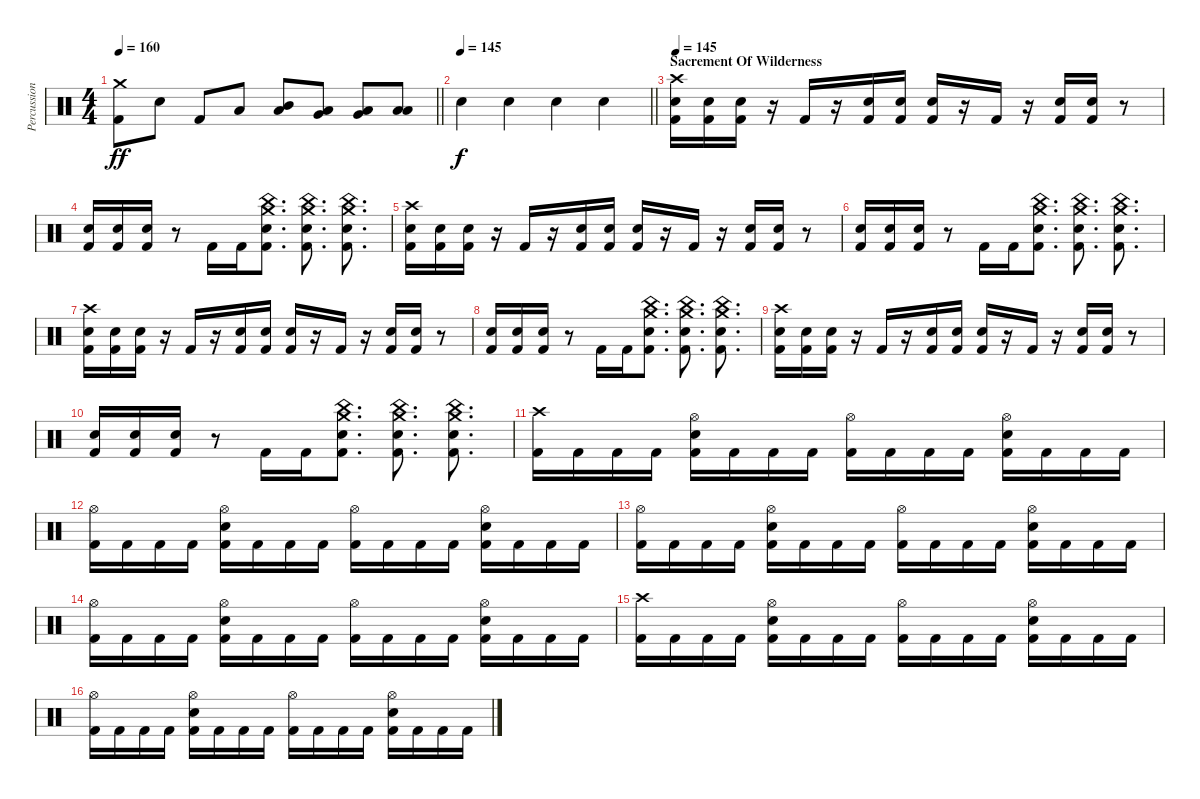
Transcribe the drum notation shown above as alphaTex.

\track ("Percussion" "Percussion") {instrument percussion}
\staff {score}
\articulation defaults
\ts (4 4)
\tempo 160
\clef neutral
\barLineRight lightlight
\ks c
("Crash medium (hit)" "Kick (hit) 2").8{dy ff} "Snare (hit) 2".8 "Kick (hit) 2".8 "Low Floor Tom (hit)".8 ("Mid Tom (hit)" "Low Floor Tom (hit)").8 ("Low Floor Tom (hit)" "Very Low Tom (hit)").8 ("Low Tom (hit)" "Very Low Tom (hit)").8 ("Low Floor Tom (hit)" "Low Floor Tom (hit)").8 |
\tempo 145
\barLineRight lightlight "Electric Snare (hit)".4{dy f} "Electric Snare (hit)".4 "Electric Snare (hit)".4 "Electric Snare (hit)".4
|
\section ("" "Sacrement Of Wilderness")
\tempo 145
("Kick (hit) 2" "Electric Snare (hit)" "Crash high (hit)").16 ("Kick (hit) 2" "Electric Snare (hit)").16 ("Kick (hit) 2" "Electric Snare (hit)").16 r.16 "Kick (hit) 2".16 r.16 ("Kick (hit) 2" "Electric Snare (hit)").16 ("Kick (hit) 2" "Electric Snare (hit)").16 ("Kick (hit) 2" "Electric Snare (hit)").16 r.16 "Kick (hit) 2".16 r.16 ("Kick (hit) 2" "Electric Snare (hit)").16 ("Kick (hit) 2" "Electric Snare (hit)").16 r.8 |
("Kick (hit) 2" "Electric Snare (hit)").16 ("Kick (hit) 2" "Electric Snare (hit)").16 ("Kick (hit) 2" "Electric Snare (hit)").16 r.8 "Kick (hit) 2".16 "Kick (hit) 2".16 ("Kick (hit) 2" "Electric Snare (hit)" "China (hit)" "Crash medium (hit)").8{d} ("Kick (hit) 2" "Electric Snare (hit)" "China (hit)" "Crash medium (hit)").8{d} ("Kick (hit) 2" "Electric Snare (hit)" "China (hit)" "Crash medium (hit)").8{d} |
("Kick (hit) 2" "Electric Snare (hit)" "Crash high (hit)").16 ("Kick (hit) 2" "Electric Snare (hit)").16 ("Kick (hit) 2" "Electric Snare (hit)").16 r.16 "Kick (hit) 2".16 r.16 ("Kick (hit) 2" "Electric Snare (hit)").16 ("Kick (hit) 2" "Electric Snare (hit)").16 ("Kick (hit) 2" "Electric Snare (hit)").16 r.16 "Kick (hit) 2".16 r.16 ("Kick (hit) 2" "Electric Snare (hit)").16 ("Kick (hit) 2" "Electric Snare (hit)").16 r.8 |
("Kick (hit) 2" "Electric Snare (hit)").16 ("Kick (hit) 2" "Electric Snare (hit)").16 ("Kick (hit) 2" "Electric Snare (hit)").16 r.8 "Kick (hit) 2".16 "Kick (hit) 2".16 ("Kick (hit) 2" "Electric Snare (hit)" "China (hit)" "Crash medium (hit)").8{d} ("Kick (hit) 2" "Electric Snare (hit)" "China (hit)" "Crash medium (hit)").8{d} ("Kick (hit) 2" "Electric Snare (hit)" "China (hit)" "Crash medium (hit)").8{d} |
("Kick (hit) 2" "Electric Snare (hit)" "Crash high (hit)").16 ("Kick (hit) 2" "Electric Snare (hit)").16 ("Kick (hit) 2" "Electric Snare (hit)").16 r.16 "Kick (hit) 2".16 r.16 ("Kick (hit) 2" "Electric Snare (hit)").16 ("Kick (hit) 2" "Electric Snare (hit)").16 ("Kick (hit) 2" "Electric Snare (hit)").16 r.16 "Kick (hit) 2".16 r.16 ("Kick (hit) 2" "Electric Snare (hit)").16 ("Kick (hit) 2" "Electric Snare (hit)").16 r.8 |
("Kick (hit) 2" "Electric Snare (hit)").16 ("Kick (hit) 2" "Electric Snare (hit)").16 ("Kick (hit) 2" "Electric Snare (hit)").16 r.8 "Kick (hit) 2".16 "Kick (hit) 2".16 ("Kick (hit) 2" "Electric Snare (hit)" "China (hit)" "Crash medium (hit)").8{d} ("Kick (hit) 2" "Electric Snare (hit)" "China (hit)" "Crash medium (hit)").8{d} ("Kick (hit) 2" "Electric Snare (hit)" "China (hit)" "Crash medium (hit)").8{d} |
("Kick (hit) 2" "Electric Snare (hit)" "Crash high (hit)").16 ("Kick (hit) 2" "Electric Snare (hit)").16 ("Kick (hit) 2" "Electric Snare (hit)").16 r.16 "Kick (hit) 2".16 r.16 ("Kick (hit) 2" "Electric Snare (hit)").16 ("Kick (hit) 2" "Electric Snare (hit)").16 ("Kick (hit) 2" "Electric Snare (hit)").16 r.16 "Kick (hit) 2".16 r.16 ("Kick (hit) 2" "Electric Snare (hit)").16 ("Kick (hit) 2" "Electric Snare (hit)").16 r.8 |
("Kick (hit) 2" "Electric Snare (hit)").16 ("Kick (hit) 2" "Electric Snare (hit)").16 ("Kick (hit) 2" "Electric Snare (hit)").16 r.8 "Kick (hit) 2".16 "Kick (hit) 2".16 ("Kick (hit) 2" "Electric Snare (hit)" "China (hit)" "Crash medium (hit)").8{d} ("Kick (hit) 2" "Electric Snare (hit)" "China (hit)" "Crash medium (hit)").8{d} ("Kick (hit) 2" "Electric Snare (hit)" "China (hit)" "Crash medium (hit)").8{d} |
("Kick (hit) 2" "Crash high (hit)").16 "Kick (hit) 2".16 "Kick (hit) 2".16 "Kick (hit) 2".16 ("Kick (hit) 2" "Electric Snare (hit)" "Hi-Hat (open)").16 "Kick (hit) 2".16 "Kick (hit) 2".16 "Kick (hit) 2".16 ("Kick (hit) 2" "Hi-Hat (open)").16 "Kick (hit) 2".16 "Kick (hit) 2".16 "Kick (hit) 2".16 ("Kick (hit) 2" "Electric Snare (hit)" "Hi-Hat (open)").16 "Kick (hit) 2".16 "Kick (hit) 2".16 "Kick (hit) 2".16 |
("Kick (hit) 2" "Hi-Hat (open)").16 "Kick (hit) 2".16 "Kick (hit) 2".16 "Kick (hit) 2".16 ("Kick (hit) 2" "Electric Snare (hit)" "Hi-Hat (open)").16 "Kick (hit) 2".16 "Kick (hit) 2".16 "Kick (hit) 2".16 ("Kick (hit) 2" "Hi-Hat (open)").16 "Kick (hit) 2".16 "Kick (hit) 2".16 "Kick (hit) 2".16 ("Kick (hit) 2" "Electric Snare (hit)" "Hi-Hat (open)").16 "Kick (hit) 2".16 "Kick (hit) 2".16 "Kick (hit) 2".16 |
("Kick (hit) 2" "Hi-Hat (open)").16 "Kick (hit) 2".16 "Kick (hit) 2".16 "Kick (hit) 2".16 ("Kick (hit) 2" "Electric Snare (hit)" "Hi-Hat (open)").16 "Kick (hit) 2".16 "Kick (hit) 2".16 "Kick (hit) 2".16 ("Kick (hit) 2" "Hi-Hat (open)").16 "Kick (hit) 2".16 "Kick (hit) 2".16 "Kick (hit) 2".16 ("Kick (hit) 2" "Electric Snare (hit)" "Hi-Hat (open)").16 "Kick (hit) 2".16 "Kick (hit) 2".16 "Kick (hit) 2".16 |
("Kick (hit) 2" "Hi-Hat (open)").16 "Kick (hit) 2".16 "Kick (hit) 2".16 "Kick (hit) 2".16 ("Kick (hit) 2" "Electric Snare (hit)" "Hi-Hat (open)").16 "Kick (hit) 2".16 "Kick (hit) 2".16 "Kick (hit) 2".16 ("Kick (hit) 2" "Hi-Hat (open)").16 "Kick (hit) 2".16 "Kick (hit) 2".16 "Kick (hit) 2".16 ("Kick (hit) 2" "Electric Snare (hit)" "Hi-Hat (open)").16 "Kick (hit) 2".16 "Kick (hit) 2".16 "Kick (hit) 2".16 |
("Kick (hit) 2" "Crash high (hit)").16 "Kick (hit) 2".16 "Kick (hit) 2".16 "Kick (hit) 2".16 ("Kick (hit) 2" "Electric Snare (hit)" "Hi-Hat (open)").16 "Kick (hit) 2".16 "Kick (hit) 2".16 "Kick (hit) 2".16 ("Kick (hit) 2" "Hi-Hat (open)").16 "Kick (hit) 2".16 "Kick (hit) 2".16 "Kick (hit) 2".16 ("Kick (hit) 2" "Electric Snare (hit)" "Hi-Hat (open)").16 "Kick (hit) 2".16 "Kick (hit) 2".16 "Kick (hit) 2".16 |
("Kick (hit) 2" "Hi-Hat (open)").16 "Kick (hit) 2".16 "Kick (hit) 2".16 "Kick (hit) 2".16 ("Kick (hit) 2" "Electric Snare (hit)" "Hi-Hat (open)").16 "Kick (hit) 2".16 "Kick (hit) 2".16 "Kick (hit) 2".16 ("Kick (hit) 2" "Hi-Hat (open)").16 "Kick (hit) 2".16 "Kick (hit) 2".16 "Kick (hit) 2".16 ("Kick (hit) 2" "Electric Snare (hit)" "Hi-Hat (open)").16 "Kick (hit) 2".16 "Kick (hit) 2".16 "Kick (hit) 2".16
